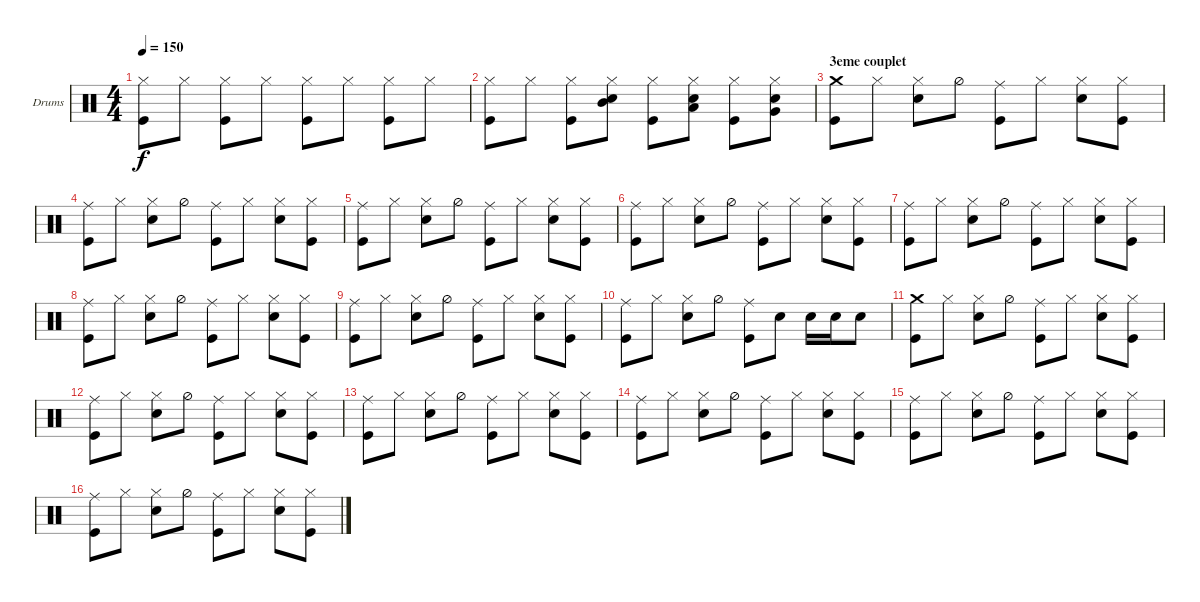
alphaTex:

\bracketExtendMode groupsimilarinstruments
\firstSystemTrackNameOrientation horizontal
\otherSystemsTrackNameOrientation horizontal
\track ("Drumkit" "Drums") {instrument percussion}
\staff {score}
\articulation defaults
\ts (4 4)
\tempo 150
\clef neutral
\ks c
("Hi-Hat (closed)" "Kick (hit)").8{dy f} "Hi-Hat (closed)".8 ("Hi-Hat (closed)" "Kick (hit)").8 "Hi-Hat (closed)".8 ("Hi-Hat (closed)" "Kick (hit)").8 "Hi-Hat (closed)".8 ("Hi-Hat (closed)" "Kick (hit)").8 "Hi-Hat (closed)".8 |
("Hi-Hat (closed)" "Kick (hit)").8 "Hi-Hat (closed)".8 ("Hi-Hat (closed)" "Kick (hit)").8 ("Hi-Hat (closed)" "Mid Tom (hit)" "Snare (hit) 2").8 ("Hi-Hat (closed)" "Kick (hit)").8 ("Hi-Hat (closed)" "Low Tom (hit)" "Snare (hit) 2").8 ("Hi-Hat (closed)" "Kick (hit)").8 ("Hi-Hat (closed)" "Very Low Tom (hit)" "Snare (hit) 2").8 |
\section ("" "3eme couplet")
("Crash medium (hit)" "Kick (hit)").8 "Hi-Hat (closed)".8 ("Snare (hit) 2" "Hi-Hat (closed)").8 "Hi-Hat (half)".8 ("Kick (hit)" "Ride (middle)").8 "Hi-Hat (closed)".8 ("Hi-Hat (closed)" "Snare (hit) 2").8 ("Hi-Hat (closed)" "Kick (hit)").8 |
("Kick (hit)" "Ride (middle)").8 "Hi-Hat (closed)".8 ("Hi-Hat (closed)" "Snare (hit) 2").8 "Hi-Hat (half)".8 ("Kick (hit)" "Ride (middle)").8 "Hi-Hat (closed)".8 ("Hi-Hat (closed)" "Snare (hit) 2").8 ("Hi-Hat (closed)" "Kick (hit)").8 |
("Kick (hit)" "Ride (middle)").8 "Hi-Hat (closed)".8 ("Hi-Hat (closed)" "Snare (hit) 2").8 "Hi-Hat (half)".8 ("Kick (hit)" "Ride (middle)").8 "Hi-Hat (closed)".8 ("Hi-Hat (closed)" "Snare (hit) 2").8 ("Hi-Hat (closed)" "Kick (hit)").8 |
("Kick (hit)" "Ride (middle)").8 "Hi-Hat (closed)".8 ("Hi-Hat (closed)" "Snare (hit) 2").8 "Hi-Hat (half)".8 ("Kick (hit)" "Ride (middle)").8 "Hi-Hat (closed)".8 ("Hi-Hat (closed)" "Snare (hit) 2").8 ("Hi-Hat (closed)" "Kick (hit)").8 |
("Kick (hit)" "Ride (middle)").8 "Hi-Hat (closed)".8 ("Hi-Hat (closed)" "Snare (hit) 2").8 "Hi-Hat (half)".8 ("Kick (hit)" "Ride (middle)").8 "Hi-Hat (closed)".8 ("Hi-Hat (closed)" "Snare (hit) 2").8 ("Hi-Hat (closed)" "Kick (hit)").8 |
("Kick (hit)" "Ride (middle)").8 "Hi-Hat (closed)".8 ("Hi-Hat (closed)" "Snare (hit) 2").8 "Hi-Hat (half)".8 ("Kick (hit)" "Ride (middle)").8 "Hi-Hat (closed)".8 ("Hi-Hat (closed)" "Snare (hit) 2").8 ("Hi-Hat (closed)" "Kick (hit)").8 |
("Kick (hit)" "Ride (middle)").8 "Hi-Hat (closed)".8 ("Hi-Hat (closed)" "Snare (hit) 2").8 "Hi-Hat (half)".8 ("Kick (hit)" "Ride (middle)").8 "Hi-Hat (closed)".8 ("Hi-Hat (closed)" "Snare (hit) 2").8 ("Hi-Hat (closed)" "Kick (hit)").8 |
("Kick (hit)" "Ride (middle)").8 "Hi-Hat (closed)".8 ("Hi-Hat (closed)" "Snare (hit) 2").8 "Hi-Hat (half)".8 ("Kick (hit)" "Ride (middle)").8 "Snare (hit) 2".8 "Snare (hit) 2".16 "Snare (hit) 2".16 "Snare (hit) 2".8 |
("Crash medium (hit)" "Kick (hit)").8 "Hi-Hat (closed)".8 ("Hi-Hat (closed)" "Snare (hit) 2").8 "Hi-Hat (half)".8 ("Kick (hit)" "Ride (middle)").8 "Hi-Hat (closed)".8 ("Hi-Hat (closed)" "Snare (hit) 2").8 ("Hi-Hat (closed)" "Kick (hit)").8 |
("Kick (hit)" "Ride (middle)").8 "Hi-Hat (closed)".8 ("Hi-Hat (closed)" "Snare (hit) 2").8 "Hi-Hat (half)".8 ("Kick (hit)" "Ride (middle)").8 "Hi-Hat (closed)".8 ("Hi-Hat (closed)" "Snare (hit) 2").8 ("Hi-Hat (closed)" "Kick (hit)").8 |
("Kick (hit)" "Ride (middle)").8 "Hi-Hat (closed)".8 ("Hi-Hat (closed)" "Snare (hit) 2").8 "Hi-Hat (half)".8 ("Kick (hit)" "Ride (middle)").8 "Hi-Hat (closed)".8 ("Hi-Hat (closed)" "Snare (hit) 2").8 ("Hi-Hat (closed)" "Kick (hit)").8 |
("Kick (hit)" "Ride (middle)").8 "Hi-Hat (closed)".8 ("Hi-Hat (closed)" "Snare (hit) 2").8 "Hi-Hat (half)".8 ("Kick (hit)" "Ride (middle)").8 "Hi-Hat (closed)".8 ("Hi-Hat (closed)" "Snare (hit) 2").8 ("Hi-Hat (closed)" "Kick (hit)").8 |
("Kick (hit)" "Ride (middle)").8 "Hi-Hat (closed)".8 ("Hi-Hat (closed)" "Snare (hit) 2").8 "Hi-Hat (half)".8 ("Kick (hit)" "Ride (middle)").8 "Hi-Hat (closed)".8 ("Hi-Hat (closed)" "Snare (hit) 2").8 ("Hi-Hat (closed)" "Kick (hit)").8 |
("Kick (hit)" "Ride (middle)").8 "Hi-Hat (closed)".8 ("Hi-Hat (closed)" "Snare (hit) 2").8 "Hi-Hat (half)".8 ("Kick (hit)" "Ride (middle)").8 "Hi-Hat (closed)".8 ("Hi-Hat (closed)" "Snare (hit) 2").8 ("Hi-Hat (closed)" "Kick (hit)").8
